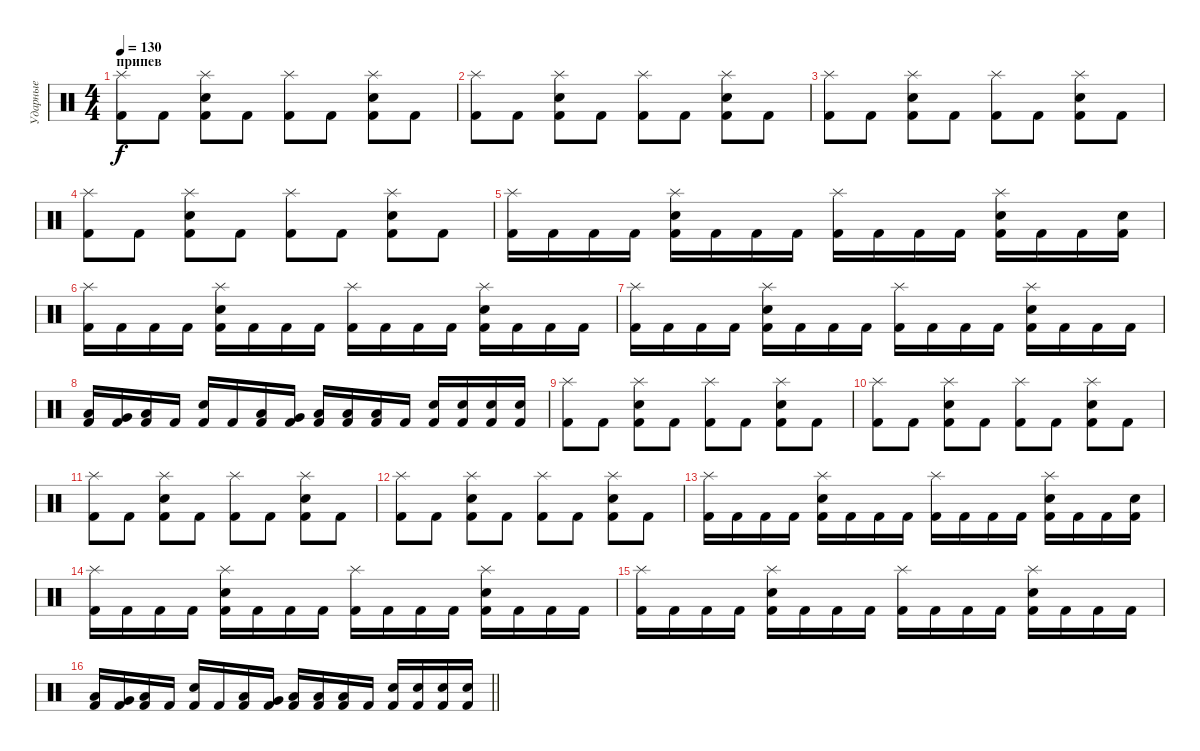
\track ("Ударные" "Ударные") {instrument percussion}
\staff {score}
\articulation defaults
\ts (4 4)
\section ("" "припев")
\tempo 130
\clef neutral
\ks c
("Splash (hit)" "Kick (hit) 2").8{dy f} "Kick (hit) 2".8 ("Splash (hit)" "Electric Snare (hit)" "Kick (hit) 2").8 "Kick (hit) 2".8 ("Splash (hit)" "Kick (hit) 2").8 "Kick (hit) 2".8 ("Splash (hit)" "Electric Snare (hit)" "Kick (hit) 2").8 "Kick (hit) 2".8 |
("Splash (hit)" "Kick (hit) 2").8 "Kick (hit) 2".8 ("Splash (hit)" "Electric Snare (hit)" "Kick (hit) 2").8 "Kick (hit) 2".8 ("Splash (hit)" "Kick (hit) 2").8 "Kick (hit) 2".8 ("Splash (hit)" "Electric Snare (hit)" "Kick (hit) 2").8 "Kick (hit) 2".8 |
("Splash (hit)" "Kick (hit) 2").8 "Kick (hit) 2".8 ("Splash (hit)" "Electric Snare (hit)" "Kick (hit) 2").8 "Kick (hit) 2".8 ("Splash (hit)" "Kick (hit) 2").8 "Kick (hit) 2".8 ("Splash (hit)" "Electric Snare (hit)" "Kick (hit) 2").8 "Kick (hit) 2".8 |
("Splash (hit)" "Kick (hit) 2").8 "Kick (hit) 2".8 ("Splash (hit)" "Electric Snare (hit)" "Kick (hit) 2").8 "Kick (hit) 2".8 ("Splash (hit)" "Kick (hit) 2").8 "Kick (hit) 2".8 ("Splash (hit)" "Electric Snare (hit)" "Kick (hit) 2").8 "Kick (hit) 2".8 |
("Splash (hit)" "Kick (hit) 2").16 "Kick (hit) 2".16 "Kick (hit) 2".16 "Kick (hit) 2".16 ("Splash (hit)" "Electric Snare (hit)" "Kick (hit) 2").16 "Kick (hit) 2".16 "Kick (hit) 2".16 "Kick (hit) 2".16 ("Splash (hit)" "Kick (hit) 2").16 "Kick (hit) 2".16 "Kick (hit) 2".16 "Kick (hit) 2".16 ("Splash (hit)" "Electric Snare (hit)" "Kick (hit) 2").16 "Kick (hit) 2".16 "Kick (hit) 2".16 ("Electric Snare (hit)" "Kick (hit) 2").16 |
("Splash (hit)" "Kick (hit) 2").16 "Kick (hit) 2".16 "Kick (hit) 2".16 "Kick (hit) 2".16 ("Splash (hit)" "Electric Snare (hit)" "Kick (hit) 2").16 "Kick (hit) 2".16 "Kick (hit) 2".16 "Kick (hit) 2".16 ("Splash (hit)" "Kick (hit) 2").16 "Kick (hit) 2".16 "Kick (hit) 2".16 "Kick (hit) 2".16 ("Splash (hit)" "Electric Snare (hit)" "Kick (hit) 2").16 "Kick (hit) 2".16 "Kick (hit) 2".16 "Kick (hit) 2".16 |
("Splash (hit)" "Kick (hit) 2").16 "Kick (hit) 2".16 "Kick (hit) 2".16 "Kick (hit) 2".16 ("Splash (hit)" "Electric Snare (hit)" "Kick (hit) 2").16 "Kick (hit) 2".16 "Kick (hit) 2".16 "Kick (hit) 2".16 ("Splash (hit)" "Kick (hit) 2").16 "Kick (hit) 2".16 "Kick (hit) 2".16 "Kick (hit) 2".16 ("Splash (hit)" "Electric Snare (hit)" "Kick (hit) 2").16 "Kick (hit) 2".16 "Kick (hit) 2".16 "Kick (hit) 2".16 |
("Low Tom (hit)" "Kick (hit) 2").16 ("Very Low Tom (hit)" "Kick (hit) 2").16 ("Low Floor Tom (hit)" "Kick (hit) 2").16 "Kick (hit) 2".16 ("Electric Snare (hit)" "Kick (hit) 2").16 "Kick (hit) 2".16 ("Low Tom (hit)" "Kick (hit) 2").16 ("Very Low Tom (hit)" "Kick (hit) 2").16 ("Low Floor Tom (hit)" "Kick (hit) 2").16 ("Low Floor Tom (hit)" "Kick (hit) 2").16 ("Low Floor Tom (hit)" "Kick (hit) 2").16 "Kick (hit) 2".16 ("Electric Snare (hit)" "Kick (hit) 2").16 ("Electric Snare (hit)" "Kick (hit) 2").16 ("Electric Snare (hit)" "Kick (hit) 2").16 ("Electric Snare (hit)" "Kick (hit) 2").16 |
("Splash (hit)" "Kick (hit) 2").8 "Kick (hit) 2".8 ("Splash (hit)" "Electric Snare (hit)" "Kick (hit) 2").8 "Kick (hit) 2".8 ("Splash (hit)" "Kick (hit) 2").8 "Kick (hit) 2".8 ("Splash (hit)" "Electric Snare (hit)" "Kick (hit) 2").8 "Kick (hit) 2".8 |
("Splash (hit)" "Kick (hit) 2").8 "Kick (hit) 2".8 ("Splash (hit)" "Electric Snare (hit)" "Kick (hit) 2").8 "Kick (hit) 2".8 ("Splash (hit)" "Kick (hit) 2").8 "Kick (hit) 2".8 ("Splash (hit)" "Electric Snare (hit)" "Kick (hit) 2").8 "Kick (hit) 2".8 |
("Splash (hit)" "Kick (hit) 2").8 "Kick (hit) 2".8 ("Splash (hit)" "Electric Snare (hit)" "Kick (hit) 2").8 "Kick (hit) 2".8 ("Splash (hit)" "Kick (hit) 2").8 "Kick (hit) 2".8 ("Splash (hit)" "Electric Snare (hit)" "Kick (hit) 2").8 "Kick (hit) 2".8 |
("Splash (hit)" "Kick (hit) 2").8 "Kick (hit) 2".8 ("Splash (hit)" "Electric Snare (hit)" "Kick (hit) 2").8 "Kick (hit) 2".8 ("Splash (hit)" "Kick (hit) 2").8 "Kick (hit) 2".8 ("Splash (hit)" "Electric Snare (hit)" "Kick (hit) 2").8 "Kick (hit) 2".8 |
("Splash (hit)" "Kick (hit) 2").16 "Kick (hit) 2".16 "Kick (hit) 2".16 "Kick (hit) 2".16 ("Splash (hit)" "Electric Snare (hit)" "Kick (hit) 2").16 "Kick (hit) 2".16 "Kick (hit) 2".16 "Kick (hit) 2".16 ("Splash (hit)" "Kick (hit) 2").16 "Kick (hit) 2".16 "Kick (hit) 2".16 "Kick (hit) 2".16 ("Splash (hit)" "Electric Snare (hit)" "Kick (hit) 2").16 "Kick (hit) 2".16 "Kick (hit) 2".16 ("Electric Snare (hit)" "Kick (hit) 2").16 |
("Splash (hit)" "Kick (hit) 2").16 "Kick (hit) 2".16 "Kick (hit) 2".16 "Kick (hit) 2".16 ("Splash (hit)" "Electric Snare (hit)" "Kick (hit) 2").16 "Kick (hit) 2".16 "Kick (hit) 2".16 "Kick (hit) 2".16 ("Splash (hit)" "Kick (hit) 2").16 "Kick (hit) 2".16 "Kick (hit) 2".16 "Kick (hit) 2".16 ("Splash (hit)" "Electric Snare (hit)" "Kick (hit) 2").16 "Kick (hit) 2".16 "Kick (hit) 2".16 "Kick (hit) 2".16 |
("Splash (hit)" "Kick (hit) 2").16 "Kick (hit) 2".16 "Kick (hit) 2".16 "Kick (hit) 2".16 ("Splash (hit)" "Electric Snare (hit)" "Kick (hit) 2").16 "Kick (hit) 2".16 "Kick (hit) 2".16 "Kick (hit) 2".16 ("Splash (hit)" "Kick (hit) 2").16 "Kick (hit) 2".16 "Kick (hit) 2".16 "Kick (hit) 2".16 ("Splash (hit)" "Electric Snare (hit)" "Kick (hit) 2").16 "Kick (hit) 2".16 "Kick (hit) 2".16 "Kick (hit) 2".16 |
\barLineRight lightlight
("Low Tom (hit)" "Kick (hit) 2").16 ("Very Low Tom (hit)" "Kick (hit) 2").16 ("Low Floor Tom (hit)" "Kick (hit) 2").16 "Kick (hit) 2".16 ("Electric Snare (hit)" "Kick (hit) 2").16 "Kick (hit) 2".16 ("Low Tom (hit)" "Kick (hit) 2").16 ("Very Low Tom (hit)" "Kick (hit) 2").16 ("Low Floor Tom (hit)" "Kick (hit) 2").16 ("Low Floor Tom (hit)" "Kick (hit) 2").16 ("Low Floor Tom (hit)" "Kick (hit) 2").16 "Kick (hit) 2".16 ("Electric Snare (hit)" "Kick (hit) 2").16 ("Electric Snare (hit)" "Kick (hit) 2").16 ("Electric Snare (hit)" "Kick (hit) 2").16 ("Electric Snare (hit)" "Kick (hit) 2").16
